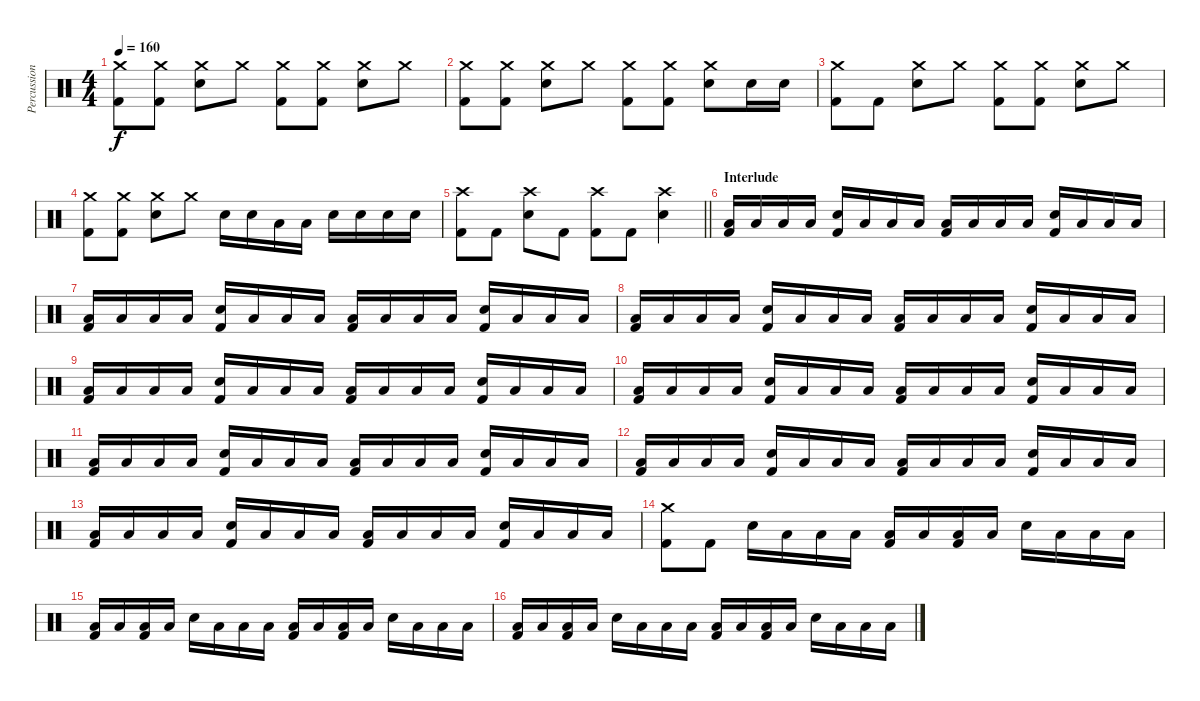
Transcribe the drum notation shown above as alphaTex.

\track ("Percussion" "Percussion") {instrument percussion}
\staff {score}
\articulation defaults
\ts (4 4)
\tempo 160
\clef neutral
\ks c
("Crash medium (hit)" "Kick (hit) 2").8{dy f} ("Crash medium (hit)" "Kick (hit) 2").8 ("Crash medium (hit)" "Electric Snare (hit)").8 "Crash medium (hit)".8 ("Crash medium (hit)" "Kick (hit) 2").8 ("Crash medium (hit)" "Kick (hit) 2").8 ("Crash medium (hit)" "Electric Snare (hit)").8 "Crash medium (hit)".8 |
("Crash medium (hit)" "Kick (hit) 2").8 ("Crash medium (hit)" "Kick (hit) 2").8 ("Crash medium (hit)" "Electric Snare (hit)").8 "Crash medium (hit)".8 ("Crash medium (hit)" "Kick (hit) 2").8 ("Crash medium (hit)" "Kick (hit) 2").8 ("Crash medium (hit)" "Electric Snare (hit)").8 "Electric Snare (hit)".16 "Electric Snare (hit)".16 |
("Crash medium (hit)" "Kick (hit) 2").8 "Kick (hit) 2".8 ("Crash medium (hit)" "Electric Snare (hit)").8 "Crash medium (hit)".8 ("Crash medium (hit)" "Kick (hit) 2").8 ("Crash medium (hit)" "Kick (hit) 2").8 ("Crash medium (hit)" "Electric Snare (hit)").8 "Crash medium (hit)".8 |
("Crash medium (hit)" "Kick (hit) 2").8 ("Crash medium (hit)" "Kick (hit) 2").8 ("Crash medium (hit)" "Electric Snare (hit)").8 "Crash medium (hit)".8 "Electric Snare (hit)".16 "Electric Snare (hit)".16 "Low Tom (hit)".16 "Low Tom (hit)".16 "Electric Snare (hit)".16 "Electric Snare (hit)".16 "Electric Snare (hit)".16 "Electric Snare (hit)".16 |
\barLineRight lightlight
("Crash high (hit)" "Kick (hit) 2").8 "Kick (hit) 2".8 ("Crash high (hit)" "Electric Snare (hit)").8 "Kick (hit) 2".8 ("Crash high (hit)" "Kick (hit) 2").8 "Kick (hit) 2".8 ("Crash high (hit)" "Electric Snare (hit)").4 |
\section ("" "Interlude")
("Low Tom (hit)" "Kick (hit) 2").16 "Low Tom (hit)".16 "Low Tom (hit)".16 "Low Tom (hit)".16 ("Electric Snare (hit)" "Kick (hit) 2").16 "Low Tom (hit)".16 "Low Tom (hit)".16 "Low Tom (hit)".16 ("Low Tom (hit)" "Kick (hit) 2").16 "Low Tom (hit)".16 "Low Tom (hit)".16 "Low Tom (hit)".16 ("Electric Snare (hit)" "Kick (hit) 2").16 "Low Tom (hit)".16 "Low Tom (hit)".16 "Low Tom (hit)".16 |
("Low Tom (hit)" "Kick (hit) 2").16 "Low Tom (hit)".16 "Low Tom (hit)".16 "Low Tom (hit)".16 ("Electric Snare (hit)" "Kick (hit) 2").16 "Low Tom (hit)".16 "Low Tom (hit)".16 "Low Tom (hit)".16 ("Low Tom (hit)" "Kick (hit) 2").16 "Low Tom (hit)".16 "Low Tom (hit)".16 "Low Tom (hit)".16 ("Electric Snare (hit)" "Kick (hit) 2").16 "Low Tom (hit)".16 "Low Tom (hit)".16 "Low Tom (hit)".16 |
("Low Tom (hit)" "Kick (hit) 2").16 "Low Tom (hit)".16 "Low Tom (hit)".16 "Low Tom (hit)".16 ("Electric Snare (hit)" "Kick (hit) 2").16 "Low Tom (hit)".16 "Low Tom (hit)".16 "Low Tom (hit)".16 ("Low Tom (hit)" "Kick (hit) 2").16 "Low Tom (hit)".16 "Low Tom (hit)".16 "Low Tom (hit)".16 ("Electric Snare (hit)" "Kick (hit) 2").16 "Low Tom (hit)".16 "Low Tom (hit)".16 "Low Tom (hit)".16 |
("Low Tom (hit)" "Kick (hit) 2").16 "Low Tom (hit)".16 "Low Tom (hit)".16 "Low Tom (hit)".16 ("Electric Snare (hit)" "Kick (hit) 2").16 "Low Tom (hit)".16 "Low Tom (hit)".16 "Low Tom (hit)".16 ("Low Tom (hit)" "Kick (hit) 2").16 "Low Tom (hit)".16 "Low Tom (hit)".16 "Low Tom (hit)".16 ("Electric Snare (hit)" "Kick (hit) 2").16 "Low Tom (hit)".16 "Low Tom (hit)".16 "Low Tom (hit)".16 |
("Low Tom (hit)" "Kick (hit) 2").16 "Low Tom (hit)".16 "Low Tom (hit)".16 "Low Tom (hit)".16 ("Electric Snare (hit)" "Kick (hit) 2").16 "Low Tom (hit)".16 "Low Tom (hit)".16 "Low Tom (hit)".16 ("Low Tom (hit)" "Kick (hit) 2").16 "Low Tom (hit)".16 "Low Tom (hit)".16 "Low Tom (hit)".16 ("Electric Snare (hit)" "Kick (hit) 2").16 "Low Tom (hit)".16 "Low Tom (hit)".16 "Low Tom (hit)".16 |
("Low Tom (hit)" "Kick (hit) 2").16 "Low Tom (hit)".16 "Low Tom (hit)".16 "Low Tom (hit)".16 ("Electric Snare (hit)" "Kick (hit) 2").16 "Low Tom (hit)".16 "Low Tom (hit)".16 "Low Tom (hit)".16 ("Low Tom (hit)" "Kick (hit) 2").16 "Low Tom (hit)".16 "Low Tom (hit)".16 "Low Tom (hit)".16 ("Electric Snare (hit)" "Kick (hit) 2").16 "Low Tom (hit)".16 "Low Tom (hit)".16 "Low Tom (hit)".16 |
("Low Tom (hit)" "Kick (hit) 2").16 "Low Tom (hit)".16 "Low Tom (hit)".16 "Low Tom (hit)".16 ("Electric Snare (hit)" "Kick (hit) 2").16 "Low Tom (hit)".16 "Low Tom (hit)".16 "Low Tom (hit)".16 ("Low Tom (hit)" "Kick (hit) 2").16 "Low Tom (hit)".16 "Low Tom (hit)".16 "Low Tom (hit)".16 ("Electric Snare (hit)" "Kick (hit) 2").16 "Low Tom (hit)".16 "Low Tom (hit)".16 "Low Tom (hit)".16 |
("Low Tom (hit)" "Kick (hit) 2").16 "Low Tom (hit)".16 "Low Tom (hit)".16 "Low Tom (hit)".16 ("Electric Snare (hit)" "Kick (hit) 2").16 "Low Tom (hit)".16 "Low Tom (hit)".16 "Low Tom (hit)".16 ("Low Tom (hit)" "Kick (hit) 2").16 "Low Tom (hit)".16 "Low Tom (hit)".16 "Low Tom (hit)".16 ("Electric Snare (hit)" "Kick (hit) 2").16 "Low Tom (hit)".16 "Low Tom (hit)".16 "Low Tom (hit)".16 |
("Crash medium (hit)" "Kick (hit) 2").8 "Kick (hit) 2".8 "Electric Snare (hit)".16 "Low Tom (hit)".16 "Low Tom (hit)".16 "Low Tom (hit)".16 ("Low Tom (hit)" "Kick (hit) 2").16 "Low Tom (hit)".16 ("Low Tom (hit)" "Kick (hit) 2").16 "Low Tom (hit)".16 "Electric Snare (hit)".16 "Low Tom (hit)".16 "Low Tom (hit)".16 "Low Tom (hit)".16 |
("Low Tom (hit)" "Kick (hit) 2").16 "Low Tom (hit)".16 ("Low Tom (hit)" "Kick (hit) 2").16 "Low Tom (hit)".16 "Electric Snare (hit)".16 "Low Tom (hit)".16 "Low Tom (hit)".16 "Low Tom (hit)".16 ("Low Tom (hit)" "Kick (hit) 2").16 "Low Tom (hit)".16 ("Low Tom (hit)" "Kick (hit) 2").16 "Low Tom (hit)".16 "Electric Snare (hit)".16 "Low Tom (hit)".16 "Low Tom (hit)".16 "Low Tom (hit)".16 |
("Low Tom (hit)" "Kick (hit) 2").16 "Low Tom (hit)".16 ("Low Tom (hit)" "Kick (hit) 2").16 "Low Tom (hit)".16 "Electric Snare (hit)".16 "Low Tom (hit)".16 "Low Tom (hit)".16 "Low Tom (hit)".16 ("Low Tom (hit)" "Kick (hit) 2").16 "Low Tom (hit)".16 ("Low Tom (hit)" "Kick (hit) 2").16 "Low Tom (hit)".16 "Electric Snare (hit)".16 "Low Tom (hit)".16 "Low Tom (hit)".16 "Low Tom (hit)".16
